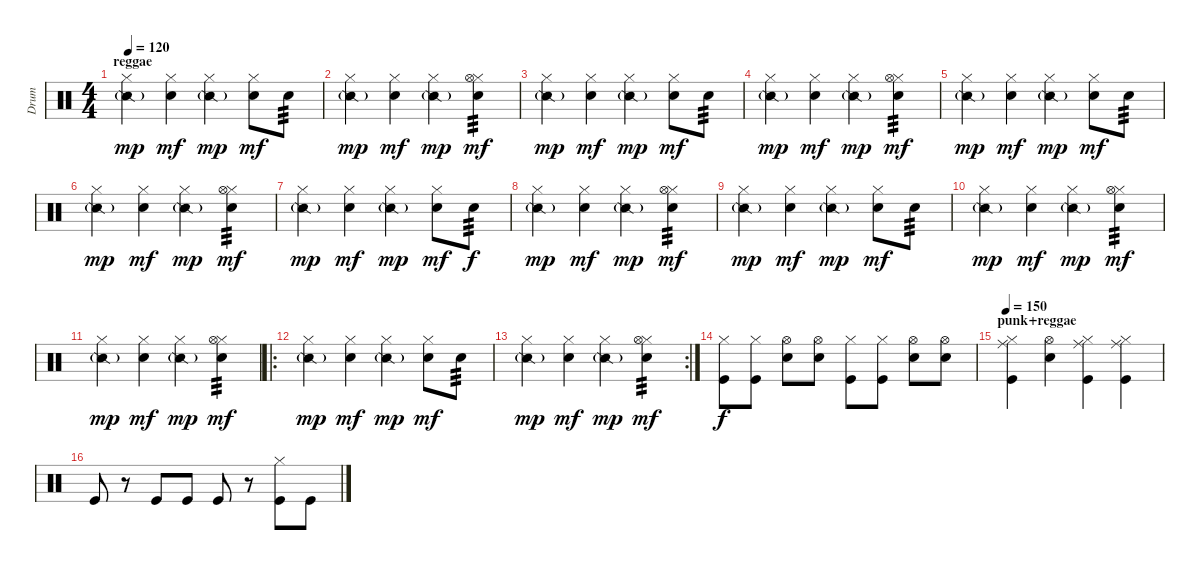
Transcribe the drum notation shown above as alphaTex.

\track ("Drum" "Drum") {instrument percussion}
\staff {score}
\articulation defaults
\ts (4 4)
\section ("" "reggae")
\tempo 120
\clef neutral
\ks c
("Hi-Hat (closed)" "Snare (side stick) 2"{g}).4{dy mp} ("Hi-Hat (closed)" "Electric Snare (hit)").4{dy mf} ("Hi-Hat (closed)" "Snare (side stick) 2"{g}).4{dy mp} ("Hi-Hat (closed)" "Electric Snare (hit)").8{dy mf} "Electric Snare (hit)".8{tp 3} |
("Hi-Hat (closed)" "Snare (side stick) 2"{g}).4{dy mp} ("Hi-Hat (closed)" "Electric Snare (hit)").4{dy mf} ("Hi-Hat (closed)" "Snare (side stick) 2"{g}).4{dy mp} ("Hi-Hat (closed)" "Hi-Hat (open)" "Electric Snare (hit)").4{tp 3 dy mf} |
("Hi-Hat (closed)" "Snare (side stick) 2"{g}).4{dy mp} ("Hi-Hat (closed)" "Electric Snare (hit)").4{dy mf} ("Hi-Hat (closed)" "Snare (side stick) 2"{g}).4{dy mp} ("Hi-Hat (closed)" "Electric Snare (hit)").8{dy mf} "Electric Snare (hit)".8{tp 3} |
("Hi-Hat (closed)" "Snare (side stick) 2"{g}).4{dy mp} ("Hi-Hat (closed)" "Electric Snare (hit)").4{dy mf} ("Hi-Hat (closed)" "Snare (side stick) 2"{g}).4{dy mp} ("Hi-Hat (closed)" "Hi-Hat (open)" "Electric Snare (hit)").4{tp 3 dy mf} |
("Hi-Hat (closed)" "Snare (side stick) 2"{g}).4{dy mp} ("Hi-Hat (closed)" "Electric Snare (hit)").4{dy mf} ("Hi-Hat (closed)" "Snare (side stick) 2"{g}).4{dy mp} ("Hi-Hat (closed)" "Electric Snare (hit)").8{dy mf} "Electric Snare (hit)".8{tp 3} |
("Hi-Hat (closed)" "Snare (side stick) 2"{g}).4{dy mp} ("Hi-Hat (closed)" "Electric Snare (hit)").4{dy mf} ("Hi-Hat (closed)" "Snare (side stick) 2"{g}).4{dy mp} ("Hi-Hat (closed)" "Hi-Hat (open)" "Electric Snare (hit)").4{tp 3 dy mf} |
("Hi-Hat (closed)" "Snare (side stick) 2"{g}).4{dy mp} ("Hi-Hat (closed)" "Electric Snare (hit)").4{dy mf} ("Hi-Hat (closed)" "Snare (side stick) 2"{g}).4{dy mp} ("Hi-Hat (closed)" "Electric Snare (hit)").8{dy mf} "Electric Snare (hit)".8{tp 3 dy f} |
("Hi-Hat (closed)" "Snare (side stick) 2"{g}).4{dy mp} ("Hi-Hat (closed)" "Electric Snare (hit)").4{dy mf} ("Hi-Hat (closed)" "Snare (side stick) 2"{g}).4{dy mp} ("Hi-Hat (closed)" "Hi-Hat (open)" "Electric Snare (hit)").4{tp 3 dy mf} |
("Hi-Hat (closed)" "Snare (side stick) 2"{g}).4{dy mp} ("Hi-Hat (closed)" "Electric Snare (hit)").4{dy mf} ("Hi-Hat (closed)" "Snare (side stick) 2"{g}).4{dy mp} ("Hi-Hat (closed)" "Electric Snare (hit)").8{dy mf} "Electric Snare (hit)".8{tp 3} |
("Hi-Hat (closed)" "Snare (side stick) 2"{g}).4{dy mp} ("Hi-Hat (closed)" "Electric Snare (hit)").4{dy mf} ("Hi-Hat (closed)" "Snare (side stick) 2"{g}).4{dy mp} ("Hi-Hat (closed)" "Hi-Hat (open)" "Electric Snare (hit)").4{tp 3 dy mf} |
("Hi-Hat (closed)" "Snare (side stick) 2"{g}).4{dy mp} ("Hi-Hat (closed)" "Electric Snare (hit)").4{dy mf} ("Hi-Hat (closed)" "Snare (side stick) 2"{g}).4{dy mp} ("Hi-Hat (closed)" "Hi-Hat (open)" "Electric Snare (hit)").4{tp 3 dy mf} |
\ro
("Hi-Hat (closed)" "Snare (side stick) 2"{g}).4{dy mp} ("Hi-Hat (closed)" "Electric Snare (hit)").4{dy mf} ("Hi-Hat (closed)" "Snare (side stick) 2"{g}).4{dy mp} ("Hi-Hat (closed)" "Electric Snare (hit)").8{dy mf} "Electric Snare (hit)".8{tp 3} |
\rc 2
("Hi-Hat (closed)" "Snare (side stick) 2"{g}).4{dy mp} ("Hi-Hat (closed)" "Electric Snare (hit)").4{dy mf} ("Hi-Hat (closed)" "Snare (side stick) 2"{g}).4{dy mp} ("Hi-Hat (closed)" "Hi-Hat (open)" "Electric Snare (hit)").4{tp 3 dy mf} |
("Hi-Hat (closed)" "Kick (hit)").8{dy f} ("Hi-Hat (closed)" "Kick (hit)").8 ("Hi-Hat (open)" "Electric Snare (hit)").8 ("Hi-Hat (open)" "Electric Snare (hit)").8 ("Hi-Hat (closed)" "Kick (hit)").8 ("Hi-Hat (closed)" "Kick (hit)").8 ("Hi-Hat (open)" "Electric Snare (hit)").8 ("Hi-Hat (open)" "Electric Snare (hit)").8 |
\section ("" "punk+reggae")
\tempo 150
("Ride (middle)" "Hi-Hat (closed)" "Kick (hit)").4 ("Hi-Hat (open)" "Electric Snare (hit)").4 ("Ride (middle)" "Hi-Hat (closed)" "Kick (hit)").4 ("Ride (middle)" "Hi-Hat (closed)" "Kick (hit)").4 |
"Kick (hit)".8 r.8 "Kick (hit)".8 "Kick (hit)".8 "Kick (hit)".8 r.8 ("Hi-Hat (closed)" "Kick (hit)").8 "Kick (hit)".8
